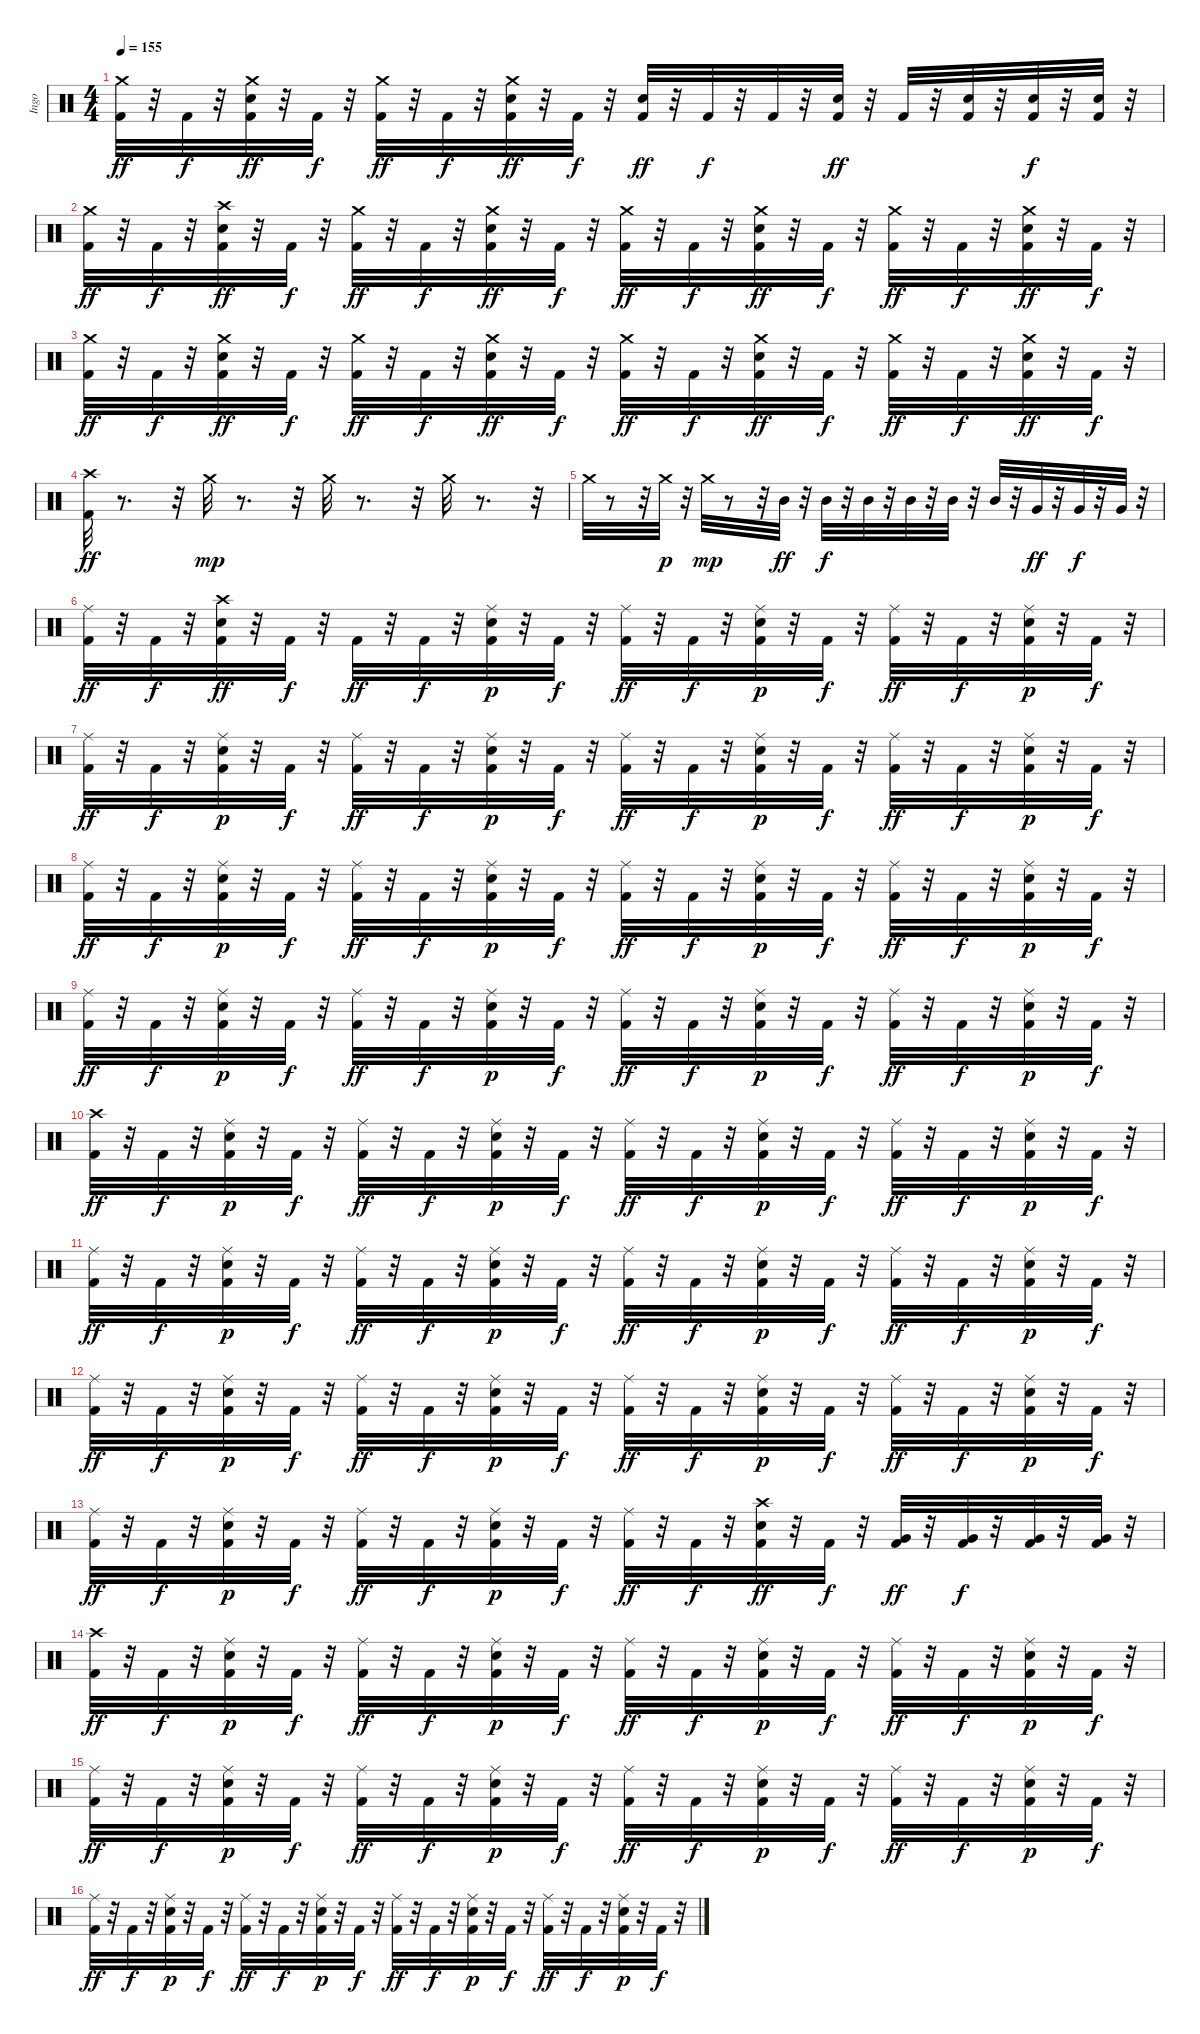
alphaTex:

\track ("Ingo" "Ingo") {instrument percussion}
\staff {score}
\articulation defaults
\ts (4 4)
\tempo 155
\clef neutral
\ks c
("Crash medium (hit)" "Kick (hit) 2").32{dy ff} r.32 "Kick (hit) 2".32{dy f} r.32 ("Kick (hit) 2" "Crash medium (hit)" "Snare (hit) 2").32{dy ff} r.32 "Kick (hit) 2".32{dy f} r.32 ("Crash medium (hit)" "Kick (hit) 2").32{dy ff} r.32 "Kick (hit) 2".32{dy f} r.32 ("Kick (hit) 2" "Crash medium (hit)" "Snare (hit) 2").32{dy ff} r.32 "Kick (hit) 2".32{dy f} r.32 ("Snare (hit) 2" "Kick (hit) 2").32{dy ff} r.32 "Kick (hit) 2".32{dy f} r.32 "Kick (hit) 2".32 r.32 ("Snare (hit) 2" "Kick (hit) 2").32{dy ff} r.32 "Kick (hit) 2".32 r.32 ("Snare (hit) 2" "Kick (hit) 2").32 r.32 ("Snare (hit) 2" "Kick (hit) 2").32{dy f} r.32 ("Snare (hit) 2" "Kick (hit) 2").32 r.32 |
("Crash medium (hit)" "Kick (hit) 2").32{dy ff} r.32 "Kick (hit) 2".32{dy f} r.32 ("Snare (hit) 2" "Crash high (hit)" "Kick (hit) 2").32{dy ff} r.32 "Kick (hit) 2".32{dy f} r.32 ("Crash medium (hit)" "Kick (hit) 2").32{dy ff} r.32 "Kick (hit) 2".32{dy f} r.32 ("Kick (hit) 2" "Crash medium (hit)" "Snare (hit) 2").32{dy ff} r.32 "Kick (hit) 2".32{dy f} r.32 ("Crash medium (hit)" "Kick (hit) 2").32{dy ff} r.32 "Kick (hit) 2".32{dy f} r.32 ("Kick (hit) 2" "Crash medium (hit)" "Snare (hit) 2").32{dy ff} r.32 "Kick (hit) 2".32{dy f} r.32 ("Crash medium (hit)" "Kick (hit) 2").32{dy ff} r.32 "Kick (hit) 2".32{dy f} r.32 ("Kick (hit) 2" "Crash medium (hit)" "Snare (hit) 2").32{dy ff} r.32 "Kick (hit) 2".32{dy f} r.32 |
("Crash medium (hit)" "Kick (hit) 2").32{dy ff} r.32 "Kick (hit) 2".32{dy f} r.32 ("Kick (hit) 2" "Crash medium (hit)" "Snare (hit) 2").32{dy ff} r.32 "Kick (hit) 2".32{dy f} r.32 ("Crash medium (hit)" "Kick (hit) 2").32{dy ff} r.32 "Kick (hit) 2".32{dy f} r.32 ("Kick (hit) 2" "Crash medium (hit)" "Snare (hit) 2").32{dy ff} r.32 "Kick (hit) 2".32{dy f} r.32 ("Crash medium (hit)" "Kick (hit) 2").32{dy ff} r.32 "Kick (hit) 2".32{dy f} r.32 ("Kick (hit) 2" "Crash medium (hit)" "Snare (hit) 2").32{dy ff} r.32 "Kick (hit) 2".32{dy f} r.32 ("Crash medium (hit)" "Kick (hit) 2").32{dy ff} r.32 "Kick (hit) 2".32{dy f} r.32 ("Kick (hit) 2" "Crash medium (hit)" "Snare (hit) 2").32{dy ff} r.32 "Kick (hit) 2".32{dy f} r.32 |
("Crash high (hit)" "Kick (hit) 2").32{dy ff} r.8{d} r.32 "Crash medium (hit)".32{dy mp} r.8{d} r.32 "Crash medium (hit)".32 r.8{d} r.32 "Crash medium (hit)".32 r.8{d} r.32 |
"Crash medium (hit)".32 r.8 r.32 "Crash medium (hit)".32{dy p} r.32 "Crash medium (hit)".32{dy mp} r.8 r.32 "Mid Tom (hit)".32{dy ff} r.32 "Mid Tom (hit)".32{dy f} r.32 "Mid Tom (hit)".32 r.32 "Mid Tom (hit)".32 r.32 "Mid Tom (hit)".32 r.32 "Mid Tom (hit)".32 r.32 "Very Low Tom (hit)".32{dy ff} r.32 "Very Low Tom (hit)".32{dy f} r.32 "Very Low Tom (hit)".32 r.32 |
("Ride (middle)" "Kick (hit) 2").32{dy ff} r.32 "Kick (hit) 2".32{dy f} r.32 ("Kick (hit) 2" "Snare (hit) 2" "Crash high (hit)").32{dy ff} r.32 "Kick (hit) 2".32{dy f} r.32 "Kick (hit) 2".32{dy ff} r.32 "Kick (hit) 2".32{dy f} r.32 ("Kick (hit) 2" "Snare (hit) 2" "Ride (middle)").32{dy p} r.32 "Kick (hit) 2".32{dy f} r.32 ("Ride (middle)" "Kick (hit) 2").32{dy ff} r.32 "Kick (hit) 2".32{dy f} r.32 ("Kick (hit) 2" "Snare (hit) 2" "Ride (middle)").32{dy p} r.32 "Kick (hit) 2".32{dy f} r.32 ("Ride (middle)" "Kick (hit) 2").32{dy ff} r.32 "Kick (hit) 2".32{dy f} r.32 ("Kick (hit) 2" "Snare (hit) 2" "Ride (middle)").32{dy p} r.32 "Kick (hit) 2".32{dy f} r.32 |
("Ride (middle)" "Kick (hit) 2").32{dy ff} r.32 "Kick (hit) 2".32{dy f} r.32 ("Kick (hit) 2" "Snare (hit) 2" "Ride (middle)").32{dy p} r.32 "Kick (hit) 2".32{dy f} r.32 ("Ride (middle)" "Kick (hit) 2").32{dy ff} r.32 "Kick (hit) 2".32{dy f} r.32 ("Kick (hit) 2" "Snare (hit) 2" "Ride (middle)").32{dy p} r.32 "Kick (hit) 2".32{dy f} r.32 ("Ride (middle)" "Kick (hit) 2").32{dy ff} r.32 "Kick (hit) 2".32{dy f} r.32 ("Kick (hit) 2" "Snare (hit) 2" "Ride (middle)").32{dy p} r.32 "Kick (hit) 2".32{dy f} r.32 ("Ride (middle)" "Kick (hit) 2").32{dy ff} r.32 "Kick (hit) 2".32{dy f} r.32 ("Kick (hit) 2" "Snare (hit) 2" "Ride (middle)").32{dy p} r.32 "Kick (hit) 2".32{dy f} r.32 |
("Ride (middle)" "Kick (hit) 2").32{dy ff} r.32 "Kick (hit) 2".32{dy f} r.32 ("Kick (hit) 2" "Snare (hit) 2" "Ride (middle)").32{dy p} r.32 "Kick (hit) 2".32{dy f} r.32 ("Ride (middle)" "Kick (hit) 2").32{dy ff} r.32 "Kick (hit) 2".32{dy f} r.32 ("Kick (hit) 2" "Snare (hit) 2" "Ride (middle)").32{dy p} r.32 "Kick (hit) 2".32{dy f} r.32 ("Ride (middle)" "Kick (hit) 2").32{dy ff} r.32 "Kick (hit) 2".32{dy f} r.32 ("Kick (hit) 2" "Snare (hit) 2" "Ride (middle)").32{dy p} r.32 "Kick (hit) 2".32{dy f} r.32 ("Ride (middle)" "Kick (hit) 2").32{dy ff} r.32 "Kick (hit) 2".32{dy f} r.32 ("Kick (hit) 2" "Snare (hit) 2" "Ride (middle)").32{dy p} r.32 "Kick (hit) 2".32{dy f} r.32 |
("Ride (middle)" "Kick (hit) 2").32{dy ff} r.32 "Kick (hit) 2".32{dy f} r.32 ("Kick (hit) 2" "Snare (hit) 2" "Ride (middle)").32{dy p} r.32 "Kick (hit) 2".32{dy f} r.32 ("Ride (middle)" "Kick (hit) 2").32{dy ff} r.32 "Kick (hit) 2".32{dy f} r.32 ("Kick (hit) 2" "Snare (hit) 2" "Ride (middle)").32{dy p} r.32 "Kick (hit) 2".32{dy f} r.32 ("Ride (middle)" "Kick (hit) 2").32{dy ff} r.32 "Kick (hit) 2".32{dy f} r.32 ("Kick (hit) 2" "Snare (hit) 2" "Ride (middle)").32{dy p} r.32 "Kick (hit) 2".32{dy f} r.32 ("Ride (middle)" "Kick (hit) 2").32{dy ff} r.32 "Kick (hit) 2".32{dy f} r.32 ("Kick (hit) 2" "Snare (hit) 2" "Ride (middle)").32{dy p} r.32 "Kick (hit) 2".32{dy f} r.32 |
("Crash high (hit)" "Kick (hit) 2").32{dy ff} r.32 "Kick (hit) 2".32{dy f} r.32 ("Kick (hit) 2" "Snare (hit) 2" "Ride (middle)").32{dy p} r.32 "Kick (hit) 2".32{dy f} r.32 ("Ride (middle)" "Kick (hit) 2").32{dy ff} r.32 "Kick (hit) 2".32{dy f} r.32 ("Kick (hit) 2" "Snare (hit) 2" "Ride (middle)").32{dy p} r.32 "Kick (hit) 2".32{dy f} r.32 ("Ride (middle)" "Kick (hit) 2").32{dy ff} r.32 "Kick (hit) 2".32{dy f} r.32 ("Kick (hit) 2" "Snare (hit) 2" "Ride (middle)").32{dy p} r.32 "Kick (hit) 2".32{dy f} r.32 ("Ride (middle)" "Kick (hit) 2").32{dy ff} r.32 "Kick (hit) 2".32{dy f} r.32 ("Kick (hit) 2" "Snare (hit) 2" "Ride (middle)").32{dy p} r.32 "Kick (hit) 2".32{dy f} r.32 |
("Ride (middle)" "Kick (hit) 2").32{dy ff} r.32 "Kick (hit) 2".32{dy f} r.32 ("Kick (hit) 2" "Snare (hit) 2" "Ride (middle)").32{dy p} r.32 "Kick (hit) 2".32{dy f} r.32 ("Ride (middle)" "Kick (hit) 2").32{dy ff} r.32 "Kick (hit) 2".32{dy f} r.32 ("Kick (hit) 2" "Snare (hit) 2" "Ride (middle)").32{dy p} r.32 "Kick (hit) 2".32{dy f} r.32 ("Ride (middle)" "Kick (hit) 2").32{dy ff} r.32 "Kick (hit) 2".32{dy f} r.32 ("Kick (hit) 2" "Snare (hit) 2" "Ride (middle)").32{dy p} r.32 "Kick (hit) 2".32{dy f} r.32 ("Ride (middle)" "Kick (hit) 2").32{dy ff} r.32 "Kick (hit) 2".32{dy f} r.32 ("Kick (hit) 2" "Snare (hit) 2" "Ride (middle)").32{dy p} r.32 "Kick (hit) 2".32{dy f} r.32 |
("Ride (middle)" "Kick (hit) 2").32{dy ff} r.32 "Kick (hit) 2".32{dy f} r.32 ("Kick (hit) 2" "Snare (hit) 2" "Ride (middle)").32{dy p} r.32 "Kick (hit) 2".32{dy f} r.32 ("Ride (middle)" "Kick (hit) 2").32{dy ff} r.32 "Kick (hit) 2".32{dy f} r.32 ("Kick (hit) 2" "Snare (hit) 2" "Ride (middle)").32{dy p} r.32 "Kick (hit) 2".32{dy f} r.32 ("Ride (middle)" "Kick (hit) 2").32{dy ff} r.32 "Kick (hit) 2".32{dy f} r.32 ("Kick (hit) 2" "Snare (hit) 2" "Ride (middle)").32{dy p} r.32 "Kick (hit) 2".32{dy f} r.32 ("Ride (middle)" "Kick (hit) 2").32{dy ff} r.32 "Kick (hit) 2".32{dy f} r.32 ("Kick (hit) 2" "Snare (hit) 2" "Ride (middle)").32{dy p} r.32 "Kick (hit) 2".32{dy f} r.32 |
("Ride (middle)" "Kick (hit) 2").32{dy ff} r.32 "Kick (hit) 2".32{dy f} r.32 ("Kick (hit) 2" "Snare (hit) 2" "Ride (middle)").32{dy p} r.32 "Kick (hit) 2".32{dy f} r.32 ("Ride (middle)" "Kick (hit) 2").32{dy ff} r.32 "Kick (hit) 2".32{dy f} r.32 ("Kick (hit) 2" "Snare (hit) 2" "Ride (middle)").32{dy p} r.32 "Kick (hit) 2".32{dy f} r.32 ("Ride (middle)" "Kick (hit) 2").32{dy ff} r.32 "Kick (hit) 2".32{dy f} r.32 ("Snare (hit) 2" "Crash high (hit)" "Kick (hit) 2").32{dy ff} r.32 "Kick (hit) 2".32{dy f} r.32 ("Very Low Tom (hit)" "Kick (hit) 2").32{dy ff} r.32 ("Very Low Tom (hit)" "Kick (hit) 2").32{dy f} r.32 ("Very Low Tom (hit)" "Kick (hit) 2").32 r.32 ("Very Low Tom (hit)" "Kick (hit) 2").32 r.32 |
("Crash high (hit)" "Kick (hit) 2").32{dy ff} r.32 "Kick (hit) 2".32{dy f} r.32 ("Kick (hit) 2" "Snare (hit) 2" "Ride (middle)").32{dy p} r.32 "Kick (hit) 2".32{dy f} r.32 ("Ride (middle)" "Kick (hit) 2").32{dy ff} r.32 "Kick (hit) 2".32{dy f} r.32 ("Kick (hit) 2" "Snare (hit) 2" "Ride (middle)").32{dy p} r.32 "Kick (hit) 2".32{dy f} r.32 ("Ride (middle)" "Kick (hit) 2").32{dy ff} r.32 "Kick (hit) 2".32{dy f} r.32 ("Kick (hit) 2" "Snare (hit) 2" "Ride (middle)").32{dy p} r.32 "Kick (hit) 2".32{dy f} r.32 ("Ride (middle)" "Kick (hit) 2").32{dy ff} r.32 "Kick (hit) 2".32{dy f} r.32 ("Kick (hit) 2" "Snare (hit) 2" "Ride (middle)").32{dy p} r.32 "Kick (hit) 2".32{dy f} r.32 |
("Ride (middle)" "Kick (hit) 2").32{dy ff} r.32 "Kick (hit) 2".32{dy f} r.32 ("Kick (hit) 2" "Snare (hit) 2" "Ride (middle)").32{dy p} r.32 "Kick (hit) 2".32{dy f} r.32 ("Ride (middle)" "Kick (hit) 2").32{dy ff} r.32 "Kick (hit) 2".32{dy f} r.32 ("Kick (hit) 2" "Snare (hit) 2" "Ride (middle)").32{dy p} r.32 "Kick (hit) 2".32{dy f} r.32 ("Ride (middle)" "Kick (hit) 2").32{dy ff} r.32 "Kick (hit) 2".32{dy f} r.32 ("Kick (hit) 2" "Snare (hit) 2" "Ride (middle)").32{dy p} r.32 "Kick (hit) 2".32{dy f} r.32 ("Ride (middle)" "Kick (hit) 2").32{dy ff} r.32 "Kick (hit) 2".32{dy f} r.32 ("Kick (hit) 2" "Snare (hit) 2" "Ride (middle)").32{dy p} r.32 "Kick (hit) 2".32{dy f} r.32 |
("Ride (middle)" "Kick (hit) 2").32{dy ff} r.32 "Kick (hit) 2".32{dy f} r.32 ("Kick (hit) 2" "Snare (hit) 2" "Ride (middle)").32{dy p} r.32 "Kick (hit) 2".32{dy f} r.32 ("Ride (middle)" "Kick (hit) 2").32{dy ff} r.32 "Kick (hit) 2".32{dy f} r.32 ("Kick (hit) 2" "Snare (hit) 2" "Ride (middle)").32{dy p} r.32 "Kick (hit) 2".32{dy f} r.32 ("Ride (middle)" "Kick (hit) 2").32{dy ff} r.32 "Kick (hit) 2".32{dy f} r.32 ("Kick (hit) 2" "Snare (hit) 2" "Ride (middle)").32{dy p} r.32 "Kick (hit) 2".32{dy f} r.32 ("Ride (middle)" "Kick (hit) 2").32{dy ff} r.32 "Kick (hit) 2".32{dy f} r.32 ("Kick (hit) 2" "Snare (hit) 2" "Ride (middle)").32{dy p} r.32 "Kick (hit) 2".32{dy f} r.32
